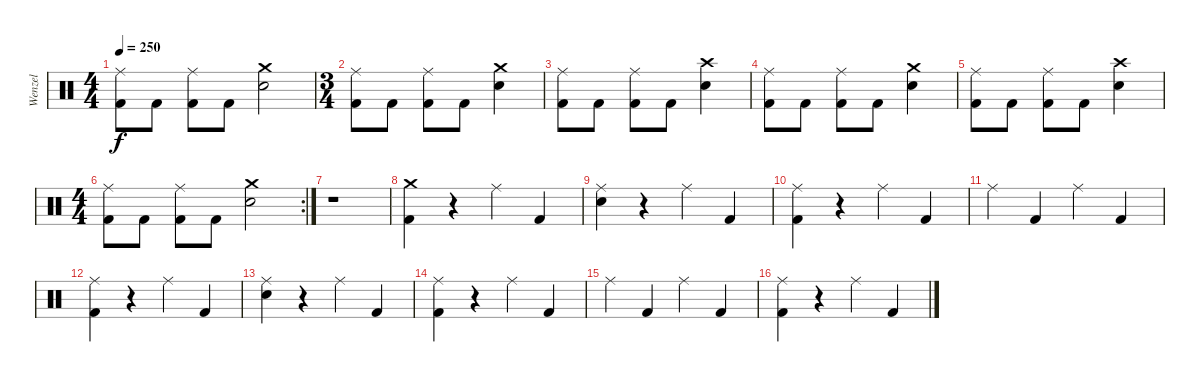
\track ("Wenzel" "Wenzel") {instrument percussion}
\staff {score}
\articulation defaults
\ts (4 4)
\tempo 250
\clef neutral
\ks c
("Ride (middle)" "Kick (hit) 2").8{dy f} "Kick (hit) 2".8 ("Ride (middle)" "Kick (hit) 2").8 "Kick (hit) 2".8 ("Crash medium (hit)" "Snare (hit) 2").2 |
\ts (3 4)
("Ride (middle)" "Kick (hit) 2").8 "Kick (hit) 2".8 ("Ride (middle)" "Kick (hit) 2").8 "Kick (hit) 2".8 ("Crash medium (hit)" "Snare (hit) 2").4 |
("Ride (middle)" "Kick (hit) 2").8 "Kick (hit) 2".8 ("Ride (middle)" "Kick (hit) 2").8 "Kick (hit) 2".8 ("Crash high (hit)" "Snare (hit) 2").4 |
("Ride (middle)" "Kick (hit) 2").8 "Kick (hit) 2".8 ("Ride (middle)" "Kick (hit) 2").8 "Kick (hit) 2".8 ("Crash medium (hit)" "Snare (hit) 2").4 |
("Ride (middle)" "Kick (hit) 2").8 "Kick (hit) 2".8 ("Ride (middle)" "Kick (hit) 2").8 "Kick (hit) 2".8 ("Crash high (hit)" "Snare (hit) 2").4 |
\rc 2
\ts (4 4)
("Ride (middle)" "Kick (hit) 2").8 "Kick (hit) 2".8 ("Ride (middle)" "Kick (hit) 2").8 "Kick (hit) 2".8 ("Crash medium (hit)" "Snare (hit) 2").2 |
r.1 |
("Crash medium (hit)" "Kick (hit) 2").4 r.4 "Ride (middle)".4 "Kick (hit) 2".4 |
("Ride (middle)" "Snare (hit) 2").4 r.4 "Ride (middle)".4 "Kick (hit) 2".4 |
("Ride (middle)" "Kick (hit) 2").4 r.4 "Ride (middle)".4 "Kick (hit) 2".4 |
"Ride (middle)".4 "Kick (hit) 2".4 "Ride (middle)".4 "Kick (hit) 2".4 |
("Ride (middle)" "Kick (hit) 2").4 r.4 "Ride (middle)".4 "Kick (hit) 2".4 |
("Ride (middle)" "Snare (hit) 2").4 r.4 "Ride (middle)".4 "Kick (hit) 2".4 |
("Ride (middle)" "Kick (hit) 2").4 r.4 "Ride (middle)".4 "Kick (hit) 2".4 |
"Ride (middle)".4 "Kick (hit) 2".4 "Ride (middle)".4 "Kick (hit) 2".4 |
("Ride (middle)" "Kick (hit) 2").4 r.4 "Ride (middle)".4 "Kick (hit) 2".4
